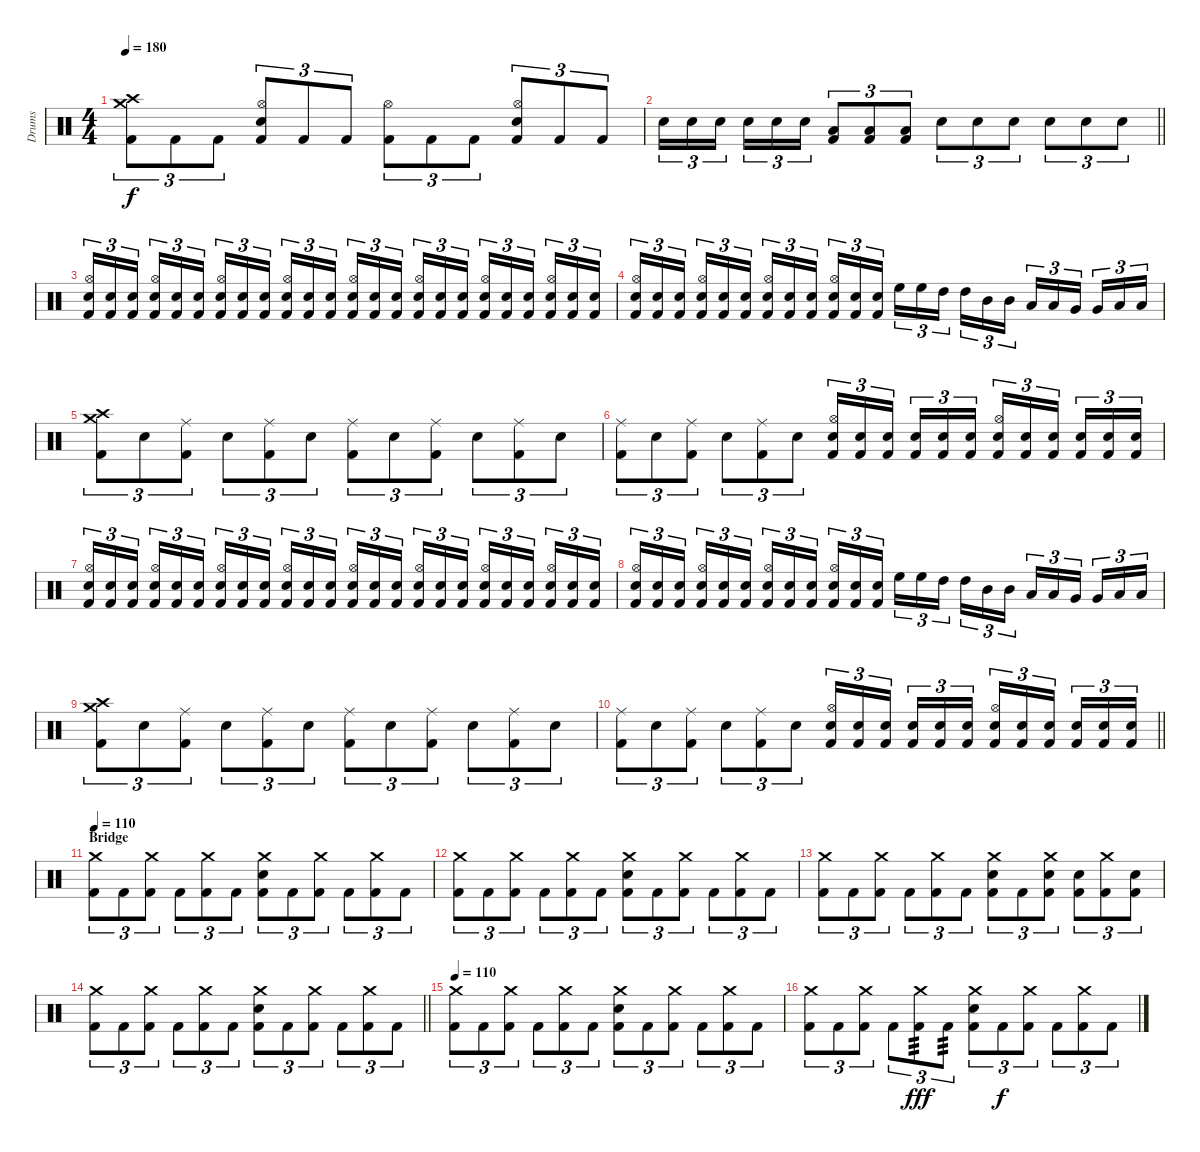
\track ("Drums" "Drums") {instrument percussion}
\staff {score}
\articulation defaults
\ts (4 4)
\tempo 180
\clef neutral
\ks c
("Crash medium (hit)" "Crash high (hit)" "Kick (hit) 2").8{tu (3 2) dy f} "Kick (hit) 2".8{tu (3 2)} "Kick (hit) 2".8{tu (3 2)} ("Hi-Hat (open)" "Electric Snare (hit)" "Kick (hit) 2").8{tu (3 2)} "Kick (hit) 2".8{tu (3 2)} "Kick (hit) 2".8{tu (3 2)} ("Hi-Hat (open)" "Kick (hit) 2").8{tu (3 2)} "Kick (hit) 2".8{tu (3 2)} "Kick (hit) 2".8{tu (3 2)} ("Hi-Hat (open)" "Electric Snare (hit)" "Kick (hit) 2").8{tu (3 2)} "Kick (hit) 2".8{tu (3 2)} "Kick (hit) 2".8{tu (3 2)} |
\barLineRight lightlight "Electric Snare (hit)".16{tu (3 2)} "Electric Snare (hit)".16{tu (3 2)} "Electric Snare (hit)".16{tu (3 2) beam splitsecondary} "Electric Snare (hit)".16{tu (3 2)} "Electric Snare (hit)".16{tu (3 2)} "Electric Snare (hit)".16{tu (3 2)}
("Low Floor Tom (hit)" "Kick (hit) 2").8{tu (3 2)} ("Low Floor Tom (hit)" "Kick (hit) 2").8{tu (3 2)} ("Low Floor Tom (hit)" "Kick (hit) 2").8{tu (3 2)} "Electric Snare (hit)".8{tu (3 2)} "Electric Snare (hit)".8{tu (3 2)} "Electric Snare (hit)".8{tu (3 2)} "Electric Snare (hit)".8{tu (3 2)} "Electric Snare (hit)".8{tu (3 2)} "Electric Snare (hit)".8{tu (3 2)} |
\section ("" "")
("Hi-Hat (open)" "Electric Snare (hit)" "Kick (hit) 2").16{tu (3 2)} ("Electric Snare (hit)" "Kick (hit) 2").16{tu (3 2)} ("Electric Snare (hit)" "Kick (hit) 2").16{tu (3 2) beam splitsecondary} ("Hi-Hat (open)" "Electric Snare (hit)" "Kick (hit) 2").16{tu (3 2)} ("Electric Snare (hit)" "Kick (hit) 2").16{tu (3 2)} ("Electric Snare (hit)" "Kick (hit) 2").16{tu (3 2)} ("Hi-Hat (open)" "Electric Snare (hit)" "Kick (hit) 2").16{tu (3 2)} ("Electric Snare (hit)" "Kick (hit) 2").16{tu (3 2)} ("Electric Snare (hit)" "Kick (hit) 2").16{tu (3 2) beam splitsecondary} ("Hi-Hat (open)" "Electric Snare (hit)" "Kick (hit) 2").16{tu (3 2)} ("Electric Snare (hit)" "Kick (hit) 2").16{tu (3 2)} ("Electric Snare (hit)" "Kick (hit) 2").16{tu (3 2)} ("Hi-Hat (open)" "Electric Snare (hit)" "Kick (hit) 2").16{tu (3 2)} ("Electric Snare (hit)" "Kick (hit) 2").16{tu (3 2)} ("Electric Snare (hit)" "Kick (hit) 2").16{tu (3 2) beam splitsecondary} ("Hi-Hat (open)" "Electric Snare (hit)" "Kick (hit) 2").16{tu (3 2)} ("Electric Snare (hit)" "Kick (hit) 2").16{tu (3 2)} ("Electric Snare (hit)" "Kick (hit) 2").16{tu (3 2)} ("Hi-Hat (open)" "Electric Snare (hit)" "Kick (hit) 2").16{tu (3 2)} ("Electric Snare (hit)" "Kick (hit) 2").16{tu (3 2)} ("Electric Snare (hit)" "Kick (hit) 2").16{tu (3 2) beam splitsecondary} ("Hi-Hat (open)" "Electric Snare (hit)" "Kick (hit) 2").16{tu (3 2)} ("Electric Snare (hit)" "Kick (hit) 2").16{tu (3 2)} ("Electric Snare (hit)" "Kick (hit) 2").16{tu (3 2)} |
("Hi-Hat (open)" "Electric Snare (hit)" "Kick (hit) 2").16{tu (3 2)} ("Electric Snare (hit)" "Kick (hit) 2").16{tu (3 2)} ("Electric Snare (hit)" "Kick (hit) 2").16{tu (3 2) beam splitsecondary} ("Hi-Hat (open)" "Electric Snare (hit)" "Kick (hit) 2").16{tu (3 2)} ("Electric Snare (hit)" "Kick (hit) 2").16{tu (3 2)} ("Electric Snare (hit)" "Kick (hit) 2").16{tu (3 2)} ("Hi-Hat (open)" "Electric Snare (hit)" "Kick (hit) 2").16{tu (3 2)} ("Electric Snare (hit)" "Kick (hit) 2").16{tu (3 2)} ("Electric Snare (hit)" "Kick (hit) 2").16{tu (3 2) beam splitsecondary} ("Hi-Hat (open)" "Electric Snare (hit)" "Kick (hit) 2").16{tu (3 2)} ("Electric Snare (hit)" "Kick (hit) 2").16{tu (3 2)} ("Electric Snare (hit)" "Kick (hit) 2").16{tu (3 2)} "High Floor Tom (hit)".16{tu (3 2)} "High Floor Tom (hit)".16{tu (3 2)} "High Tom (hit)".16{tu (3 2) beam splitsecondary} "High Tom (hit)".16{tu (3 2)} "Mid Tom (hit)".16{tu (3 2)} "Mid Tom (hit)".16{tu (3 2)} "Low Tom (hit)".16{tu (3 2)} "Low Tom (hit)".16{tu (3 2)} "Very Low Tom (hit)".16{tu (3 2) beam splitsecondary} "Very Low Tom (hit)".16{tu (3 2)} "Low Floor Tom (hit)".16{tu (3 2)} "Low Floor Tom (hit)".16{tu (3 2)} |
("Crash medium (hit)" "Crash high (hit)" "Kick (hit) 2").8{tu (3 2)} "Electric Snare (hit)".8{tu (3 2)} ("Ride (middle)" "Kick (hit) 2").8{tu (3 2)} "Electric Snare (hit)".8{tu (3 2)} ("Ride (middle)" "Kick (hit) 2").8{tu (3 2)} "Electric Snare (hit)".8{tu (3 2)} ("Ride (middle)" "Kick (hit) 2").8{tu (3 2)} "Electric Snare (hit)".8{tu (3 2)} ("Ride (middle)" "Kick (hit) 2").8{tu (3 2)} "Electric Snare (hit)".8{tu (3 2)} ("Ride (middle)" "Kick (hit) 2").8{tu (3 2)} "Electric Snare (hit)".8{tu (3 2)} |
("Ride (middle)" "Kick (hit) 2").8{tu (3 2)} "Electric Snare (hit)".8{tu (3 2)} ("Ride (middle)" "Kick (hit) 2").8{tu (3 2)} "Electric Snare (hit)".8{tu (3 2)} ("Ride (middle)" "Kick (hit) 2").8{tu (3 2)} "Electric Snare (hit)".8{tu (3 2)} ("Hi-Hat (open)" "Electric Snare (hit)" "Kick (hit) 2").16{tu (3 2)} ("Electric Snare (hit)" "Kick (hit) 2").16{tu (3 2)} ("Electric Snare (hit)" "Kick (hit) 2").16{tu (3 2) beam splitsecondary} ("Electric Snare (hit)" "Kick (hit) 2").16{tu (3 2)} ("Electric Snare (hit)" "Kick (hit) 2").16{tu (3 2)} ("Electric Snare (hit)" "Kick (hit) 2").16{tu (3 2)} ("Hi-Hat (open)" "Electric Snare (hit)" "Kick (hit) 2").16{tu (3 2)} ("Electric Snare (hit)" "Kick (hit) 2").16{tu (3 2)} ("Electric Snare (hit)" "Kick (hit) 2").16{tu (3 2) beam splitsecondary} ("Electric Snare (hit)" "Kick (hit) 2").16{tu (3 2)} ("Electric Snare (hit)" "Kick (hit) 2").16{tu (3 2)} ("Electric Snare (hit)" "Kick (hit) 2").16{tu (3 2)} |
("Hi-Hat (open)" "Electric Snare (hit)" "Kick (hit) 2").16{tu (3 2)} ("Electric Snare (hit)" "Kick (hit) 2").16{tu (3 2)} ("Electric Snare (hit)" "Kick (hit) 2").16{tu (3 2) beam splitsecondary} ("Hi-Hat (open)" "Electric Snare (hit)" "Kick (hit) 2").16{tu (3 2)} ("Electric Snare (hit)" "Kick (hit) 2").16{tu (3 2)} ("Electric Snare (hit)" "Kick (hit) 2").16{tu (3 2)} ("Hi-Hat (open)" "Electric Snare (hit)" "Kick (hit) 2").16{tu (3 2)} ("Electric Snare (hit)" "Kick (hit) 2").16{tu (3 2)} ("Electric Snare (hit)" "Kick (hit) 2").16{tu (3 2) beam splitsecondary} ("Hi-Hat (open)" "Electric Snare (hit)" "Kick (hit) 2").16{tu (3 2)} ("Electric Snare (hit)" "Kick (hit) 2").16{tu (3 2)} ("Electric Snare (hit)" "Kick (hit) 2").16{tu (3 2)} ("Hi-Hat (open)" "Electric Snare (hit)" "Kick (hit) 2").16{tu (3 2)} ("Electric Snare (hit)" "Kick (hit) 2").16{tu (3 2)} ("Electric Snare (hit)" "Kick (hit) 2").16{tu (3 2) beam splitsecondary} ("Hi-Hat (open)" "Electric Snare (hit)" "Kick (hit) 2").16{tu (3 2)} ("Electric Snare (hit)" "Kick (hit) 2").16{tu (3 2)} ("Electric Snare (hit)" "Kick (hit) 2").16{tu (3 2)} ("Hi-Hat (open)" "Electric Snare (hit)" "Kick (hit) 2").16{tu (3 2)} ("Electric Snare (hit)" "Kick (hit) 2").16{tu (3 2)} ("Electric Snare (hit)" "Kick (hit) 2").16{tu (3 2) beam splitsecondary} ("Hi-Hat (open)" "Electric Snare (hit)" "Kick (hit) 2").16{tu (3 2)} ("Electric Snare (hit)" "Kick (hit) 2").16{tu (3 2)} ("Electric Snare (hit)" "Kick (hit) 2").16{tu (3 2)} |
("Hi-Hat (open)" "Electric Snare (hit)" "Kick (hit) 2").16{tu (3 2)} ("Electric Snare (hit)" "Kick (hit) 2").16{tu (3 2)} ("Electric Snare (hit)" "Kick (hit) 2").16{tu (3 2) beam splitsecondary} ("Hi-Hat (open)" "Electric Snare (hit)" "Kick (hit) 2").16{tu (3 2)} ("Electric Snare (hit)" "Kick (hit) 2").16{tu (3 2)} ("Electric Snare (hit)" "Kick (hit) 2").16{tu (3 2)} ("Hi-Hat (open)" "Electric Snare (hit)" "Kick (hit) 2").16{tu (3 2)} ("Electric Snare (hit)" "Kick (hit) 2").16{tu (3 2)} ("Electric Snare (hit)" "Kick (hit) 2").16{tu (3 2) beam splitsecondary} ("Hi-Hat (open)" "Electric Snare (hit)" "Kick (hit) 2").16{tu (3 2)} ("Electric Snare (hit)" "Kick (hit) 2").16{tu (3 2)} ("Electric Snare (hit)" "Kick (hit) 2").16{tu (3 2)} "High Floor Tom (hit)".16{tu (3 2)} "High Floor Tom (hit)".16{tu (3 2)} "High Tom (hit)".16{tu (3 2) beam splitsecondary} "High Tom (hit)".16{tu (3 2)} "Mid Tom (hit)".16{tu (3 2)} "Mid Tom (hit)".16{tu (3 2)} "Low Tom (hit)".16{tu (3 2)} "Low Tom (hit)".16{tu (3 2)} "Very Low Tom (hit)".16{tu (3 2) beam splitsecondary} "Very Low Tom (hit)".16{tu (3 2)} "Low Floor Tom (hit)".16{tu (3 2)} "Low Floor Tom (hit)".16{tu (3 2)} |
("Crash medium (hit)" "Crash high (hit)" "Kick (hit) 2").8{tu (3 2)} "Electric Snare (hit)".8{tu (3 2)} ("Ride (middle)" "Kick (hit) 2").8{tu (3 2)} "Electric Snare (hit)".8{tu (3 2)} ("Ride (middle)" "Kick (hit) 2").8{tu (3 2)} "Electric Snare (hit)".8{tu (3 2)} ("Ride (middle)" "Kick (hit) 2").8{tu (3 2)} "Electric Snare (hit)".8{tu (3 2)} ("Ride (middle)" "Kick (hit) 2").8{tu (3 2)} "Electric Snare (hit)".8{tu (3 2)} ("Ride (middle)" "Kick (hit) 2").8{tu (3 2)} "Electric Snare (hit)".8{tu (3 2)} |
\barLineRight lightlight
("Ride (middle)" "Kick (hit) 2").8{tu (3 2)} "Electric Snare (hit)".8{tu (3 2)} ("Ride (middle)" "Kick (hit) 2").8{tu (3 2)} "Electric Snare (hit)".8{tu (3 2)} ("Ride (middle)" "Kick (hit) 2").8{tu (3 2)} "Electric Snare (hit)".8{tu (3 2)} ("Hi-Hat (open)" "Electric Snare (hit)" "Kick (hit) 2").16{tu (3 2)} ("Electric Snare (hit)" "Kick (hit) 2").16{tu (3 2)} ("Electric Snare (hit)" "Kick (hit) 2").16{tu (3 2) beam splitsecondary} ("Electric Snare (hit)" "Kick (hit) 2").16{tu (3 2)} ("Electric Snare (hit)" "Kick (hit) 2").16{tu (3 2)} ("Electric Snare (hit)" "Kick (hit) 2").16{tu (3 2)} ("Hi-Hat (open)" "Electric Snare (hit)" "Kick (hit) 2").16{tu (3 2)} ("Electric Snare (hit)" "Kick (hit) 2").16{tu (3 2)} ("Electric Snare (hit)" "Kick (hit) 2").16{tu (3 2) beam splitsecondary} ("Electric Snare (hit)" "Kick (hit) 2").16{tu (3 2)} ("Electric Snare (hit)" "Kick (hit) 2").16{tu (3 2)} ("Electric Snare (hit)" "Kick (hit) 2").16{tu (3 2)} |
\section ("" "Bridge")
\tempo 115
\tempo 110
("Crash medium (hit)" "Kick (hit) 2").8{tu (3 2)} "Kick (hit) 2".8{tu (3 2)} ("Crash medium (hit)" "Kick (hit) 2").8{tu (3 2)} "Kick (hit) 2".8{tu (3 2)} ("Crash medium (hit)" "Kick (hit) 2").8{tu (3 2)} "Kick (hit) 2".8{tu (3 2)} ("Crash medium (hit)" "Electric Snare (hit)" "Kick (hit) 2").8{tu (3 2)} "Kick (hit) 2".8{tu (3 2)} ("Crash medium (hit)" "Kick (hit) 2").8{tu (3 2)} "Kick (hit) 2".8{tu (3 2)} ("Crash medium (hit)" "Kick (hit) 2").8{tu (3 2)} "Kick (hit) 2".8{tu (3 2)} |
("Crash medium (hit)" "Kick (hit) 2").8{tu (3 2)} "Kick (hit) 2".8{tu (3 2)} ("Crash medium (hit)" "Kick (hit) 2").8{tu (3 2)} "Kick (hit) 2".8{tu (3 2)} ("Crash medium (hit)" "Kick (hit) 2").8{tu (3 2)} "Kick (hit) 2".8{tu (3 2)} ("Crash medium (hit)" "Electric Snare (hit)" "Kick (hit) 2").8{tu (3 2)} "Kick (hit) 2".8{tu (3 2)} ("Crash medium (hit)" "Kick (hit) 2").8{tu (3 2)} "Kick (hit) 2".8{tu (3 2)} ("Crash medium (hit)" "Kick (hit) 2").8{tu (3 2)} "Kick (hit) 2".8{tu (3 2)} |
("Crash medium (hit)" "Kick (hit) 2").8{tu (3 2)} "Kick (hit) 2".8{tu (3 2)} ("Crash medium (hit)" "Kick (hit) 2").8{tu (3 2)} "Kick (hit) 2".8{tu (3 2)} ("Crash medium (hit)" "Kick (hit) 2").8{tu (3 2)} "Kick (hit) 2".8{tu (3 2)} ("Crash medium (hit)" "Electric Snare (hit)" "Kick (hit) 2").8{tu (3 2)} "Kick (hit) 2".8{tu (3 2)} ("Crash medium (hit)" "Electric Snare (hit)" "Kick (hit) 2").8{tu (3 2)} ("Electric Snare (hit)" "Kick (hit) 2").8{tu (3 2)} ("Crash medium (hit)" "Kick (hit) 2").8{tu (3 2)} ("Electric Snare (hit)" "Kick (hit) 2").8{tu (3 2)} |
\barLineRight lightlight
("Crash medium (hit)" "Kick (hit) 2").8{tu (3 2)} "Kick (hit) 2".8{tu (3 2)} ("Crash medium (hit)" "Kick (hit) 2").8{tu (3 2)} "Kick (hit) 2".8{tu (3 2)} ("Crash medium (hit)" "Kick (hit) 2").8{tu (3 2)} "Kick (hit) 2".8{tu (3 2)} ("Crash medium (hit)" "Electric Snare (hit)" "Kick (hit) 2").8{tu (3 2)} "Kick (hit) 2".8{tu (3 2)} ("Crash medium (hit)" "Kick (hit) 2").8{tu (3 2)} "Kick (hit) 2".8{tu (3 2)} ("Crash medium (hit)" "Kick (hit) 2").8{tu (3 2)} "Kick (hit) 2".8{tu (3 2)} |
\tempo 115
\tempo 110
("Crash medium (hit)" "Kick (hit) 2").8{tu (3 2)} "Kick (hit) 2".8{tu (3 2)} ("Crash medium (hit)" "Kick (hit) 2").8{tu (3 2)} "Kick (hit) 2".8{tu (3 2)} ("Crash medium (hit)" "Kick (hit) 2").8{tu (3 2)} "Kick (hit) 2".8{tu (3 2)} ("Crash medium (hit)" "Electric Snare (hit)" "Kick (hit) 2").8{tu (3 2)} "Kick (hit) 2".8{tu (3 2)} ("Crash medium (hit)" "Kick (hit) 2").8{tu (3 2)} "Kick (hit) 2".8{tu (3 2)} ("Crash medium (hit)" "Kick (hit) 2").8{tu (3 2)} "Kick (hit) 2".8{tu (3 2)} |
("Crash medium (hit)" "Kick (hit) 2").8{tu (3 2)} "Kick (hit) 2".8{tu (3 2)} ("Crash medium (hit)" "Kick (hit) 2").8{tu (3 2)} "Kick (hit) 2".8{tu (3 2)} ("Crash medium (hit)" "Kick (hit) 2").8{tu (3 2) tp 3 dy fff} "Kick (hit) 2".8{tu (3 2) tp 3} ("Crash medium (hit)" "Electric Snare (hit)" "Kick (hit) 2").8{tu (3 2)} "Kick (hit) 2".8{tu (3 2) dy f} ("Crash medium (hit)" "Kick (hit) 2").8{tu (3 2)} "Kick (hit) 2".8{tu (3 2)} ("Crash medium (hit)" "Kick (hit) 2").8{tu (3 2)} "Kick (hit) 2".8{tu (3 2)}
